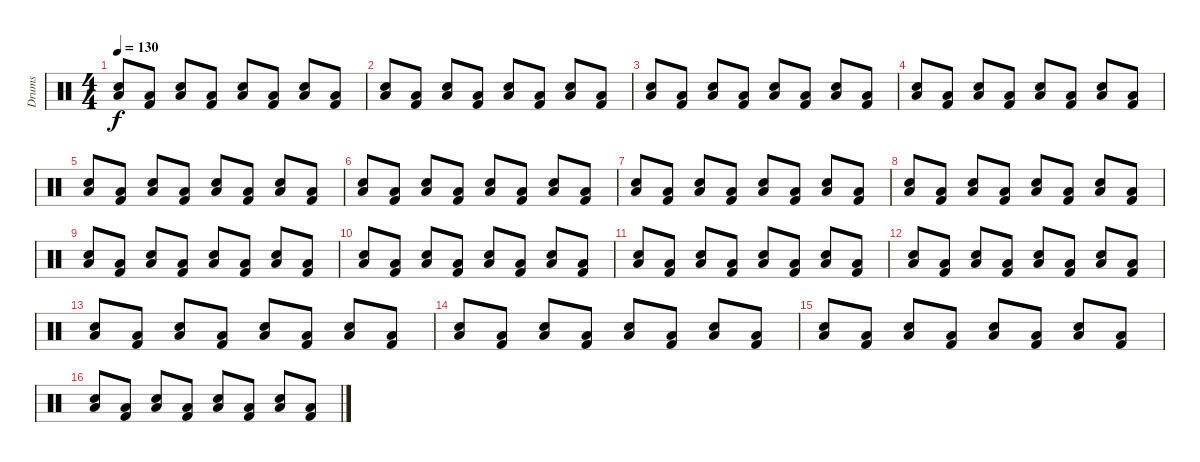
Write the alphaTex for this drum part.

\track ("Drums" "Drums") {instrument percussion}
\staff {score}
\articulation defaults
\ts (4 4)
\tempo 130
\clef neutral
\ks c
("Snare (hit) 2" "Low Floor Tom (hit)").8{dy f} ("Low Floor Tom (hit)" "Kick (hit) 2").8 ("Snare (hit) 2" "Low Floor Tom (hit)").8 ("Kick (hit) 2" "Low Floor Tom (hit)").8 ("Snare (hit) 2" "Low Floor Tom (hit)").8 ("Kick (hit) 2" "Low Floor Tom (hit)").8 ("Snare (hit) 2" "Low Floor Tom (hit)").8 ("Kick (hit) 2" "Low Floor Tom (hit)").8 |
("Snare (hit) 2" "Low Floor Tom (hit)").8 ("Low Floor Tom (hit)" "Kick (hit) 2").8 ("Snare (hit) 2" "Low Floor Tom (hit)").8 ("Kick (hit) 2" "Low Floor Tom (hit)").8 ("Snare (hit) 2" "Low Floor Tom (hit)").8 ("Kick (hit) 2" "Low Floor Tom (hit)").8 ("Snare (hit) 2" "Low Floor Tom (hit)").8 ("Kick (hit) 2" "Low Floor Tom (hit)").8 |
("Snare (hit) 2" "Low Floor Tom (hit)").8 ("Low Floor Tom (hit)" "Kick (hit) 2").8 ("Snare (hit) 2" "Low Floor Tom (hit)").8 ("Kick (hit) 2" "Low Floor Tom (hit)").8 ("Snare (hit) 2" "Low Floor Tom (hit)").8 ("Kick (hit) 2" "Low Floor Tom (hit)").8 ("Snare (hit) 2" "Low Floor Tom (hit)").8 ("Kick (hit) 2" "Low Floor Tom (hit)").8 |
("Snare (hit) 2" "Low Floor Tom (hit)").8 ("Low Floor Tom (hit)" "Kick (hit) 2").8 ("Snare (hit) 2" "Low Floor Tom (hit)").8 ("Kick (hit) 2" "Low Floor Tom (hit)").8 ("Snare (hit) 2" "Low Floor Tom (hit)").8 ("Kick (hit) 2" "Low Floor Tom (hit)").8 ("Snare (hit) 2" "Low Floor Tom (hit)").8 ("Kick (hit) 2" "Low Floor Tom (hit)").8 |
("Snare (hit) 2" "Low Floor Tom (hit)").8 ("Low Floor Tom (hit)" "Kick (hit) 2").8 ("Snare (hit) 2" "Low Floor Tom (hit)").8 ("Kick (hit) 2" "Low Floor Tom (hit)").8 ("Snare (hit) 2" "Low Floor Tom (hit)").8 ("Kick (hit) 2" "Low Floor Tom (hit)").8 ("Snare (hit) 2" "Low Floor Tom (hit)").8 ("Kick (hit) 2" "Low Floor Tom (hit)").8 |
("Snare (hit) 2" "Low Floor Tom (hit)").8 ("Low Floor Tom (hit)" "Kick (hit) 2").8 ("Snare (hit) 2" "Low Floor Tom (hit)").8 ("Kick (hit) 2" "Low Floor Tom (hit)").8 ("Snare (hit) 2" "Low Floor Tom (hit)").8 ("Kick (hit) 2" "Low Floor Tom (hit)").8 ("Snare (hit) 2" "Low Floor Tom (hit)").8 ("Kick (hit) 2" "Low Floor Tom (hit)").8 |
("Snare (hit) 2" "Low Floor Tom (hit)").8 ("Low Floor Tom (hit)" "Kick (hit) 2").8 ("Snare (hit) 2" "Low Floor Tom (hit)").8 ("Kick (hit) 2" "Low Floor Tom (hit)").8 ("Snare (hit) 2" "Low Floor Tom (hit)").8 ("Kick (hit) 2" "Low Floor Tom (hit)").8 ("Snare (hit) 2" "Low Floor Tom (hit)").8 ("Kick (hit) 2" "Low Floor Tom (hit)").8 |
("Snare (hit) 2" "Low Floor Tom (hit)").8 ("Low Floor Tom (hit)" "Kick (hit) 2").8 ("Snare (hit) 2" "Low Floor Tom (hit)").8 ("Kick (hit) 2" "Low Floor Tom (hit)").8 ("Snare (hit) 2" "Low Floor Tom (hit)").8 ("Kick (hit) 2" "Low Floor Tom (hit)").8 ("Snare (hit) 2" "Low Floor Tom (hit)").8 ("Kick (hit) 2" "Low Floor Tom (hit)").8 |
("Snare (hit) 2" "Low Floor Tom (hit)").8 ("Low Floor Tom (hit)" "Kick (hit) 2").8 ("Snare (hit) 2" "Low Floor Tom (hit)").8 ("Kick (hit) 2" "Low Floor Tom (hit)").8 ("Snare (hit) 2" "Low Floor Tom (hit)").8 ("Kick (hit) 2" "Low Floor Tom (hit)").8 ("Snare (hit) 2" "Low Floor Tom (hit)").8 ("Kick (hit) 2" "Low Floor Tom (hit)").8 |
("Snare (hit) 2" "Low Floor Tom (hit)").8 ("Low Floor Tom (hit)" "Kick (hit) 2").8 ("Snare (hit) 2" "Low Floor Tom (hit)").8 ("Kick (hit) 2" "Low Floor Tom (hit)").8 ("Snare (hit) 2" "Low Floor Tom (hit)").8 ("Kick (hit) 2" "Low Floor Tom (hit)").8 ("Snare (hit) 2" "Low Floor Tom (hit)").8 ("Kick (hit) 2" "Low Floor Tom (hit)").8 |
("Snare (hit) 2" "Low Floor Tom (hit)").8 ("Low Floor Tom (hit)" "Kick (hit) 2").8 ("Snare (hit) 2" "Low Floor Tom (hit)").8 ("Kick (hit) 2" "Low Floor Tom (hit)").8 ("Snare (hit) 2" "Low Floor Tom (hit)").8 ("Kick (hit) 2" "Low Floor Tom (hit)").8 ("Snare (hit) 2" "Low Floor Tom (hit)").8 ("Kick (hit) 2" "Low Floor Tom (hit)").8 |
("Snare (hit) 2" "Low Floor Tom (hit)").8 ("Low Floor Tom (hit)" "Kick (hit) 2").8 ("Snare (hit) 2" "Low Floor Tom (hit)").8 ("Kick (hit) 2" "Low Floor Tom (hit)").8 ("Snare (hit) 2" "Low Floor Tom (hit)").8 ("Kick (hit) 2" "Low Floor Tom (hit)").8 ("Snare (hit) 2" "Low Floor Tom (hit)").8 ("Kick (hit) 2" "Low Floor Tom (hit)").8 |
("Snare (hit) 2" "Low Floor Tom (hit)").8 ("Low Floor Tom (hit)" "Kick (hit) 2").8 ("Snare (hit) 2" "Low Floor Tom (hit)").8 ("Kick (hit) 2" "Low Floor Tom (hit)").8 ("Snare (hit) 2" "Low Floor Tom (hit)").8 ("Kick (hit) 2" "Low Floor Tom (hit)").8 ("Snare (hit) 2" "Low Floor Tom (hit)").8 ("Kick (hit) 2" "Low Floor Tom (hit)").8 |
("Snare (hit) 2" "Low Floor Tom (hit)").8 ("Low Floor Tom (hit)" "Kick (hit) 2").8 ("Snare (hit) 2" "Low Floor Tom (hit)").8 ("Kick (hit) 2" "Low Floor Tom (hit)").8 ("Snare (hit) 2" "Low Floor Tom (hit)").8 ("Kick (hit) 2" "Low Floor Tom (hit)").8 ("Snare (hit) 2" "Low Floor Tom (hit)").8 ("Kick (hit) 2" "Low Floor Tom (hit)").8 |
("Snare (hit) 2" "Low Floor Tom (hit)").8 ("Low Floor Tom (hit)" "Kick (hit) 2").8 ("Snare (hit) 2" "Low Floor Tom (hit)").8 ("Kick (hit) 2" "Low Floor Tom (hit)").8 ("Snare (hit) 2" "Low Floor Tom (hit)").8 ("Kick (hit) 2" "Low Floor Tom (hit)").8 ("Snare (hit) 2" "Low Floor Tom (hit)").8 ("Kick (hit) 2" "Low Floor Tom (hit)").8 |
("Snare (hit) 2" "Low Floor Tom (hit)").8 ("Low Floor Tom (hit)" "Kick (hit) 2").8 ("Snare (hit) 2" "Low Floor Tom (hit)").8 ("Kick (hit) 2" "Low Floor Tom (hit)").8 ("Snare (hit) 2" "Low Floor Tom (hit)").8 ("Kick (hit) 2" "Low Floor Tom (hit)").8 ("Snare (hit) 2" "Low Floor Tom (hit)").8 ("Kick (hit) 2" "Low Floor Tom (hit)").8
